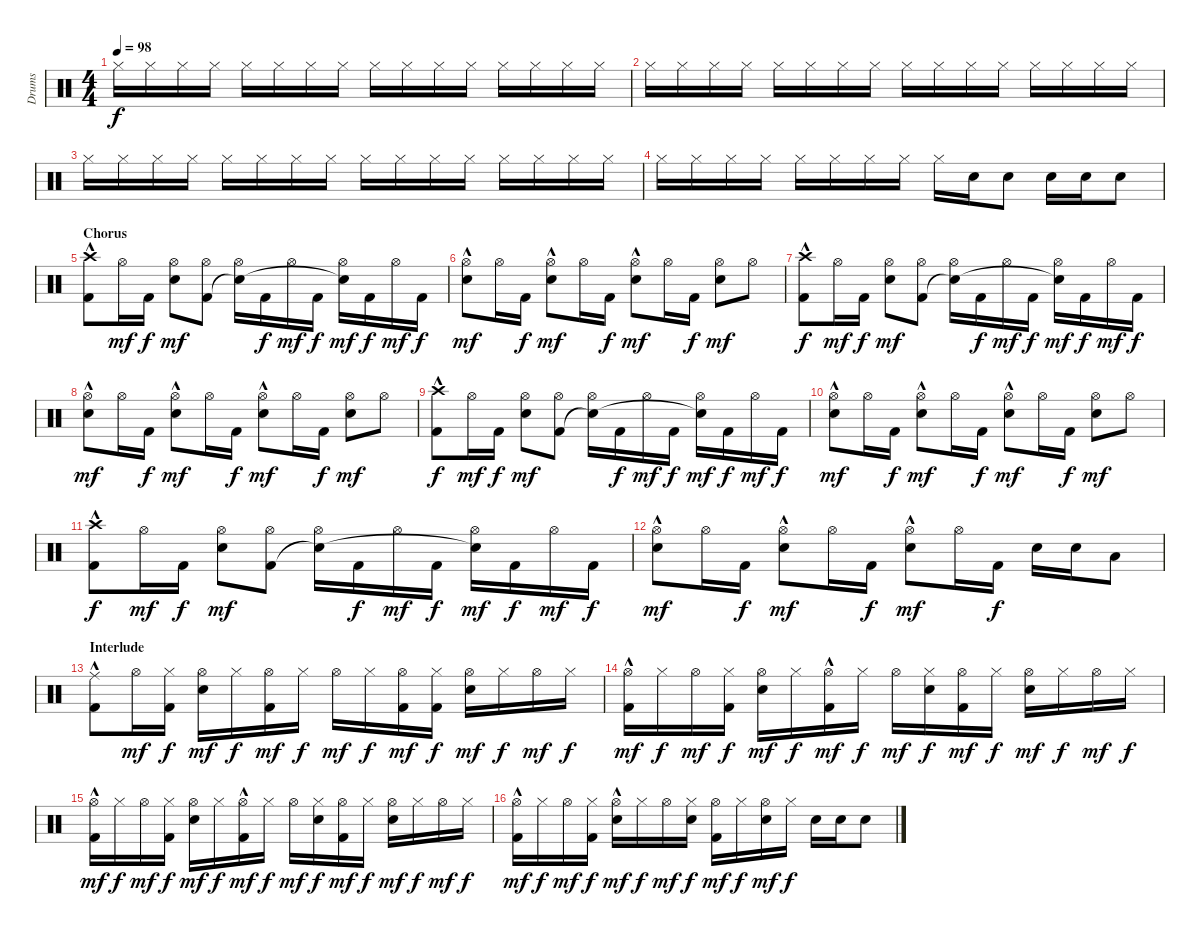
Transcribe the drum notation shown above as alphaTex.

\track ("Drums" "Drums") {instrument percussion}
\staff {score}
\articulation defaults
\ts (4 4)
\tempo 98
\clef neutral
\ks c "Hi-Hat (closed)".16{dy f} "Hi-Hat (closed)".16 "Hi-Hat (closed)".16 "Hi-Hat (closed)".16 "Hi-Hat (closed)".16 "Hi-Hat (closed)".16 "Hi-Hat (closed)".16 "Hi-Hat (closed)".16 "Hi-Hat (closed)".16 "Hi-Hat (closed)".16 "Hi-Hat (closed)".16 "Hi-Hat (closed)".16 "Hi-Hat (closed)".16 "Hi-Hat (closed)".16 "Hi-Hat (closed)".16 "Hi-Hat (closed)".16
|
"Hi-Hat (closed)".16 "Hi-Hat (closed)".16 "Hi-Hat (closed)".16 "Hi-Hat (closed)".16 "Hi-Hat (closed)".16 "Hi-Hat (closed)".16 "Hi-Hat (closed)".16 "Hi-Hat (closed)".16 "Hi-Hat (closed)".16 "Hi-Hat (closed)".16 "Hi-Hat (closed)".16 "Hi-Hat (closed)".16 "Hi-Hat (closed)".16 "Hi-Hat (closed)".16 "Hi-Hat (closed)".16 "Hi-Hat (closed)".16 |
"Hi-Hat (closed)".16 "Hi-Hat (closed)".16 "Hi-Hat (closed)".16 "Hi-Hat (closed)".16 "Hi-Hat (closed)".16 "Hi-Hat (closed)".16 "Hi-Hat (closed)".16 "Hi-Hat (closed)".16 "Hi-Hat (closed)".16 "Hi-Hat (closed)".16 "Hi-Hat (closed)".16 "Hi-Hat (closed)".16 "Hi-Hat (closed)".16 "Hi-Hat (closed)".16 "Hi-Hat (closed)".16 "Hi-Hat (closed)".16 |
"Hi-Hat (closed)".16 "Hi-Hat (closed)".16 "Hi-Hat (closed)".16 "Hi-Hat (closed)".16 "Hi-Hat (closed)".16 "Hi-Hat (closed)".16 "Hi-Hat (closed)".16 "Hi-Hat (closed)".16 "Hi-Hat (closed)".16 "Electric Snare (hit)".16 "Electric Snare (hit)".8 "Electric Snare (hit)".16 "Electric Snare (hit)".16 "Electric Snare (hit)".8 |
\section ("" "Chorus")
("Crash high (hit)" "Kick (hit) 2"{hac}).8 "Hi-Hat (open)".16{dy mf} "Kick (hit) 2".16{dy f} ("Hi-Hat (open)" "Electric Snare (hit)").8{dy mf} ("Hi-Hat (open)" "Kick (hit) 2").8 ("Hi-Hat (open)" "Snare (hit)"{t}).16 "Kick (hit) 2".16{dy f} "Hi-Hat (open)".16{dy mf} "Kick (hit) 2".16{dy f} ("Hi-Hat (open)" "Snare (hit)"{t}).16{dy mf} "Kick (hit) 2".16{dy f} "Hi-Hat (open)".16{dy mf} "Kick (hit) 2".16{dy f} |
("Hi-Hat (open)" "Electric Snare (hit)"{hac}).8{dy mf} "Hi-Hat (open)".16 "Kick (hit) 2".16{dy f} ("Hi-Hat (open)" "Electric Snare (hit)"{hac}).8{dy mf} "Hi-Hat (open)".16 "Kick (hit) 2".16{dy f} ("Hi-Hat (open)" "Electric Snare (hit)"{hac}).8{dy mf} "Hi-Hat (open)".16 "Kick (hit) 2".16{dy f} ("Hi-Hat (open)" "Electric Snare (hit)").8{dy mf} "Hi-Hat (open)".8 |
("Crash high (hit)" "Kick (hit) 2"{hac}).8{dy f} "Hi-Hat (open)".16{dy mf} "Kick (hit) 2".16{dy f} ("Hi-Hat (open)" "Electric Snare (hit)").8{dy mf} ("Hi-Hat (open)" "Kick (hit) 2").8 ("Hi-Hat (open)" "Snare (hit)"{t}).16 "Kick (hit) 2".16{dy f} "Hi-Hat (open)".16{dy mf} "Kick (hit) 2".16{dy f} ("Hi-Hat (open)" "Snare (hit)"{t}).16{dy mf} "Kick (hit) 2".16{dy f} "Hi-Hat (open)".16{dy mf} "Kick (hit) 2".16{dy f} |
("Hi-Hat (open)" "Electric Snare (hit)"{hac}).8{dy mf} "Hi-Hat (open)".16 "Kick (hit) 2".16{dy f} ("Hi-Hat (open)" "Electric Snare (hit)"{hac}).8{dy mf} "Hi-Hat (open)".16 "Kick (hit) 2".16{dy f} ("Hi-Hat (open)" "Electric Snare (hit)"{hac}).8{dy mf} "Hi-Hat (open)".16 "Kick (hit) 2".16{dy f} ("Hi-Hat (open)" "Electric Snare (hit)").8{dy mf} "Hi-Hat (open)".8 |
("Crash high (hit)" "Kick (hit) 2"{hac}).8{dy f} "Hi-Hat (open)".16{dy mf} "Kick (hit) 2".16{dy f} ("Hi-Hat (open)" "Electric Snare (hit)").8{dy mf} ("Hi-Hat (open)" "Kick (hit) 2").8 ("Hi-Hat (open)" "Snare (hit)"{t}).16 "Kick (hit) 2".16{dy f} "Hi-Hat (open)".16{dy mf} "Kick (hit) 2".16{dy f} ("Hi-Hat (open)" "Snare (hit)"{t}).16{dy mf} "Kick (hit) 2".16{dy f} "Hi-Hat (open)".16{dy mf} "Kick (hit) 2".16{dy f} |
("Hi-Hat (open)" "Electric Snare (hit)"{hac}).8{dy mf} "Hi-Hat (open)".16 "Kick (hit) 2".16{dy f} ("Hi-Hat (open)" "Electric Snare (hit)"{hac}).8{dy mf} "Hi-Hat (open)".16 "Kick (hit) 2".16{dy f} ("Hi-Hat (open)" "Electric Snare (hit)"{hac}).8{dy mf} "Hi-Hat (open)".16 "Kick (hit) 2".16{dy f} ("Hi-Hat (open)" "Electric Snare (hit)").8{dy mf} "Hi-Hat (open)".8 |
("Crash high (hit)" "Kick (hit) 2"{hac}).8{dy f} "Hi-Hat (open)".16{dy mf} "Kick (hit) 2".16{dy f} ("Hi-Hat (open)" "Electric Snare (hit)").8{dy mf} ("Hi-Hat (open)" "Kick (hit) 2").8 ("Hi-Hat (open)" "Snare (hit)"{t}).16 "Kick (hit) 2".16{dy f} "Hi-Hat (open)".16{dy mf} "Kick (hit) 2".16{dy f} ("Hi-Hat (open)" "Snare (hit)"{t}).16{dy mf} "Kick (hit) 2".16{dy f} "Hi-Hat (open)".16{dy mf} "Kick (hit) 2".16{dy f} |
("Hi-Hat (open)" "Electric Snare (hit)"{hac}).8{dy mf} "Hi-Hat (open)".16 "Kick (hit) 2".16{dy f} ("Hi-Hat (open)" "Electric Snare (hit)"{hac}).8{dy mf} "Hi-Hat (open)".16 "Kick (hit) 2".16{dy f} ("Hi-Hat (open)" "Electric Snare (hit)"{hac}).8{dy mf} "Hi-Hat (open)".16 "Kick (hit) 2".16{dy f} "Electric Snare (hit)".16 "Electric Snare (hit)".16 "Low Tom (hit)".8 |
\section ("" "Interlude")
("Ride (middle)" "Kick (hit) 2"{hac}).8 "Hi-Hat (open)".16{dy mf} ("Hi-Hat (closed)" "Kick (hit) 2").16{dy f} ("Hi-Hat (open)" "Electric Snare (hit)").16{dy mf} "Hi-Hat (closed)".16{dy f} ("Hi-Hat (open)" "Kick (hit) 2").16{dy mf} "Hi-Hat (closed)".16{dy f} "Hi-Hat (open)".16{dy mf} "Hi-Hat (closed)".16{dy f} ("Hi-Hat (open)" "Kick (hit) 2").16{dy mf} ("Hi-Hat (closed)" "Kick (hit) 2").16{dy f} ("Hi-Hat (open)" "Electric Snare (hit)").16{dy mf} "Hi-Hat (closed)".16{dy f} "Hi-Hat (open)".16{dy mf} "Hi-Hat (closed)".16{dy f} |
("Hi-Hat (open)" "Kick (hit) 2"{hac}).16{dy mf} "Hi-Hat (closed)".16{dy f} "Hi-Hat (open)".16{dy mf} ("Hi-Hat (closed)" "Kick (hit) 2").16{dy f} ("Hi-Hat (open)" "Electric Snare (hit)").16{dy mf} "Hi-Hat (closed)".16{dy f} ("Hi-Hat (open)" "Kick (hit) 2"{hac}).16{dy mf} "Hi-Hat (closed)".16{dy f} "Hi-Hat (open)".16{dy mf} ("Hi-Hat (closed)" "Electric Snare (hit)").16{dy f} ("Hi-Hat (open)" "Kick (hit) 2").16{dy mf} "Hi-Hat (closed)".16{dy f} ("Hi-Hat (open)" "Electric Snare (hit)").16{dy mf} "Hi-Hat (closed)".16{dy f} "Hi-Hat (open)".16{dy mf} "Hi-Hat (closed)".16{dy f} |
("Hi-Hat (open)" "Kick (hit) 2"{hac}).16{dy mf} "Hi-Hat (closed)".16{dy f} "Hi-Hat (open)".16{dy mf} ("Hi-Hat (closed)" "Kick (hit) 2").16{dy f} ("Hi-Hat (open)" "Electric Snare (hit)").16{dy mf} "Hi-Hat (closed)".16{dy f} ("Hi-Hat (open)" "Kick (hit) 2"{hac}).16{dy mf} "Hi-Hat (closed)".16{dy f} "Hi-Hat (open)".16{dy mf} ("Hi-Hat (closed)" "Electric Snare (hit)").16{dy f} ("Hi-Hat (open)" "Kick (hit) 2").16{dy mf} "Hi-Hat (closed)".16{dy f} ("Hi-Hat (open)" "Electric Snare (hit)").16{dy mf} "Hi-Hat (closed)".16{dy f} "Hi-Hat (open)".16{dy mf} "Hi-Hat (closed)".16{dy f} |
("Hi-Hat (open)" "Kick (hit) 2"{hac}).16{dy mf} "Hi-Hat (closed)".16{dy f} "Hi-Hat (open)".16{dy mf} ("Hi-Hat (closed)" "Kick (hit) 2").16{dy f} ("Hi-Hat (open)" "Electric Snare (hit)"{hac}).16{dy mf} "Hi-Hat (closed)".16{dy f} "Hi-Hat (open)".16{dy mf} ("Hi-Hat (closed)" "Electric Snare (hit)").16{dy f} ("Hi-Hat (open)" "Kick (hit) 2").16{dy mf} "Hi-Hat (closed)".16{dy f} ("Hi-Hat (open)" "Electric Snare (hit)").16{dy mf} "Hi-Hat (closed)".16{dy f} "Electric Snare (hit)".16 "Electric Snare (hit)".16 "Electric Snare (hit)".8
